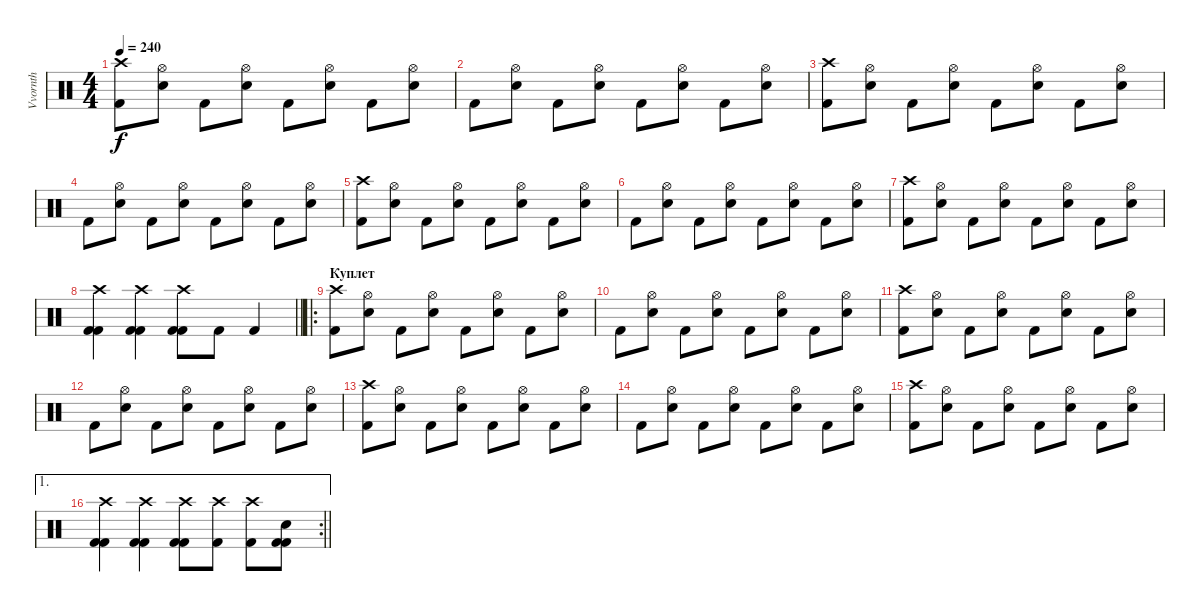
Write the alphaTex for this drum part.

\track ("Vvornth" "Vvornth") {instrument percussion}
\staff {score}
\articulation defaults
\ts (4 4)
\tempo 240
\clef neutral
\ks c
("Crash high (hit)" "Kick (hit) 2").8{dy f} ("Hi-Hat (open)" "Snare (hit) 2").8 "Kick (hit) 2".8 ("Hi-Hat (open)" "Snare (hit) 2").8 "Kick (hit) 2".8 ("Hi-Hat (open)" "Snare (hit) 2").8 "Kick (hit) 2".8 ("Hi-Hat (open)" "Snare (hit) 2").8 |
"Kick (hit) 2".8 ("Hi-Hat (open)" "Snare (hit) 2").8 "Kick (hit) 2".8 ("Hi-Hat (open)" "Snare (hit) 2").8 "Kick (hit) 2".8 ("Hi-Hat (open)" "Snare (hit) 2").8 "Kick (hit) 2".8 ("Hi-Hat (open)" "Snare (hit) 2").8 |
("Crash high (hit)" "Kick (hit) 2").8 ("Hi-Hat (open)" "Snare (hit) 2").8 "Kick (hit) 2".8 ("Hi-Hat (open)" "Snare (hit) 2").8 "Kick (hit) 2".8 ("Hi-Hat (open)" "Snare (hit) 2").8 "Kick (hit) 2".8 ("Hi-Hat (open)" "Snare (hit) 2").8 |
"Kick (hit) 2".8 ("Hi-Hat (open)" "Snare (hit) 2").8 "Kick (hit) 2".8 ("Hi-Hat (open)" "Snare (hit) 2").8 "Kick (hit) 2".8 ("Hi-Hat (open)" "Snare (hit) 2").8 "Kick (hit) 2".8 ("Hi-Hat (open)" "Snare (hit) 2").8 |
("Crash high (hit)" "Kick (hit) 2").8 ("Hi-Hat (open)" "Snare (hit) 2").8 "Kick (hit) 2".8 ("Hi-Hat (open)" "Snare (hit) 2").8 "Kick (hit) 2".8 ("Hi-Hat (open)" "Snare (hit) 2").8 "Kick (hit) 2".8 ("Hi-Hat (open)" "Snare (hit) 2").8 |
"Kick (hit) 2".8 ("Hi-Hat (open)" "Snare (hit) 2").8 "Kick (hit) 2".8 ("Hi-Hat (open)" "Snare (hit) 2").8 "Kick (hit) 2".8 ("Hi-Hat (open)" "Snare (hit) 2").8 "Kick (hit) 2".8 ("Hi-Hat (open)" "Snare (hit) 2").8 |
("Crash high (hit)" "Kick (hit) 2").8 ("Hi-Hat (open)" "Snare (hit) 2").8 "Kick (hit) 2".8 ("Hi-Hat (open)" "Snare (hit) 2").8 "Kick (hit) 2".8 ("Hi-Hat (open)" "Snare (hit) 2").8 "Kick (hit) 2".8 ("Hi-Hat (open)" "Snare (hit) 2").8 |
\barLineRight lightlight
("Crash high (hit)" "Kick (hit) 2" "Kick (hit) 2").4 ("Crash high (hit)" "Kick (hit) 2" "Kick (hit) 2").4 ("Crash high (hit)" "Kick (hit) 2" "Kick (hit) 2").8 "Kick (hit) 2".8 "Kick (hit) 2".4 |
\ro
\section ("" "Куплет")
("Crash high (hit)" "Kick (hit) 2").8 ("Hi-Hat (open)" "Snare (hit) 2").8 "Kick (hit) 2".8 ("Hi-Hat (open)" "Snare (hit) 2").8 "Kick (hit) 2".8 ("Hi-Hat (open)" "Snare (hit) 2").8 "Kick (hit) 2".8 ("Hi-Hat (open)" "Snare (hit) 2").8 |
"Kick (hit) 2".8 ("Hi-Hat (open)" "Snare (hit) 2").8 "Kick (hit) 2".8 ("Hi-Hat (open)" "Snare (hit) 2").8 "Kick (hit) 2".8 ("Hi-Hat (open)" "Snare (hit) 2").8 "Kick (hit) 2".8 ("Hi-Hat (open)" "Snare (hit) 2").8 |
("Crash high (hit)" "Kick (hit) 2").8 ("Hi-Hat (open)" "Snare (hit) 2").8 "Kick (hit) 2".8 ("Hi-Hat (open)" "Snare (hit) 2").8 "Kick (hit) 2".8 ("Hi-Hat (open)" "Snare (hit) 2").8 "Kick (hit) 2".8 ("Hi-Hat (open)" "Snare (hit) 2").8 |
"Kick (hit) 2".8 ("Hi-Hat (open)" "Snare (hit) 2").8 "Kick (hit) 2".8 ("Hi-Hat (open)" "Snare (hit) 2").8 "Kick (hit) 2".8 ("Hi-Hat (open)" "Snare (hit) 2").8 "Kick (hit) 2".8 ("Hi-Hat (open)" "Snare (hit) 2").8 |
("Crash high (hit)" "Kick (hit) 2").8 ("Hi-Hat (open)" "Snare (hit) 2").8 "Kick (hit) 2".8 ("Hi-Hat (open)" "Snare (hit) 2").8 "Kick (hit) 2".8 ("Hi-Hat (open)" "Snare (hit) 2").8 "Kick (hit) 2".8 ("Hi-Hat (open)" "Snare (hit) 2").8 |
"Kick (hit) 2".8 ("Hi-Hat (open)" "Snare (hit) 2").8 "Kick (hit) 2".8 ("Hi-Hat (open)" "Snare (hit) 2").8 "Kick (hit) 2".8 ("Hi-Hat (open)" "Snare (hit) 2").8 "Kick (hit) 2".8 ("Hi-Hat (open)" "Snare (hit) 2").8 |
("Crash high (hit)" "Kick (hit) 2").8 ("Hi-Hat (open)" "Snare (hit) 2").8 "Kick (hit) 2".8 ("Hi-Hat (open)" "Snare (hit) 2").8 "Kick (hit) 2".8 ("Hi-Hat (open)" "Snare (hit) 2").8 "Kick (hit) 2".8 ("Hi-Hat (open)" "Snare (hit) 2").8 |
\ae 1
\rc 2
\barLineRight lightlight
("Crash high (hit)" "Kick (hit) 2" "Kick (hit) 2").4 ("Crash high (hit)" "Kick (hit) 2" "Kick (hit) 2").4 ("Crash high (hit)" "Kick (hit) 2" "Kick (hit) 2").8 ("Crash high (hit)" "Kick (hit) 2").8 ("Crash high (hit)" "Kick (hit) 2").8 ("Kick (hit) 2" "Snare (hit)" "Kick (hit) 2").8
